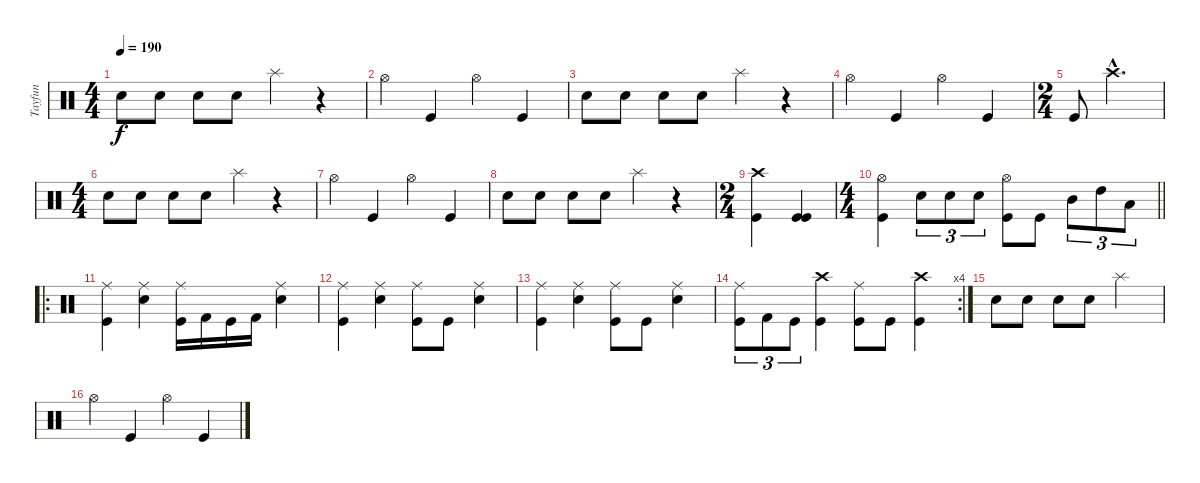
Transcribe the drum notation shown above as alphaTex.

\track ("Tayfun" "Tayfun") {instrument percussion}
\staff {score}
\articulation defaults
\ts (4 4)
\tempo 190
\clef neutral
\ks c "Snare (hit) 2".8{dy f} "Snare (hit) 2".8 "Snare (hit) 2".8 "Snare (hit) 2".8 "Splash (hit)".4
r.4 |
"Hi-Hat (open)".4 "Kick (hit)".4 "Hi-Hat (open)".4 "Kick (hit)".4 |
"Snare (hit) 2".8 "Snare (hit) 2".8 "Snare (hit) 2".8 "Snare (hit) 2".8 "Splash (hit)".4 r.4 |
"Hi-Hat (open)".4 "Kick (hit)".4 "Hi-Hat (open)".4 "Kick (hit)".4 |
\ts (2 4)
"Kick (hit)".8 "Crash high (hit)"{hac}.4{d} |
\ts (4 4)
"Snare (hit) 2".8 "Snare (hit) 2".8 "Snare (hit) 2".8 "Snare (hit) 2".8 "Splash (hit)".4 r.4 |
"Hi-Hat (open)".4 "Kick (hit)".4 "Hi-Hat (open)".4 "Kick (hit)".4 |
"Snare (hit) 2".8 "Snare (hit) 2".8 "Snare (hit) 2".8 "Snare (hit) 2".8 "Splash (hit)".4 r.4 |
\ts (2 4)
("Crash high (hit)" "Kick (hit)").4 ("Kick (hit)" "Kick (hit)").4 |
\ts (4 4)
\barLineRight lightlight
("Hi-Hat (open)" "Kick (hit)").4 "Snare (hit) 2".8{tu (3 2)} "Snare (hit) 2".8{tu (3 2)} "Snare (hit) 2".8{tu (3 2)} ("Hi-Hat (open)" "Kick (hit)").8 "Kick (hit)".8 "Mid Tom (hit)".8{tu (3 2)} "High Tom (hit)".8{tu (3 2)} "Low Tom (hit)".8{tu (3 2)} |
\ro
("Ride (middle)" "Kick (hit)").4 ("Ride (middle)" "Snare (hit) 2").4 ("Ride (middle)" "Kick (hit)").16 "Kick (hit) 2".16 "Kick (hit)".16 "Kick (hit) 2".16 ("Ride (middle)" "Snare (hit) 2").4 |
("Ride (middle)" "Kick (hit)").4 ("Ride (middle)" "Snare (hit) 2").4 ("Ride (middle)" "Kick (hit)").8 "Kick (hit)".8 ("Ride (middle)" "Snare (hit) 2").4 |
("Ride (middle)" "Kick (hit)").4 ("Ride (middle)" "Snare (hit) 2").4 ("Ride (middle)" "Kick (hit)").8 "Kick (hit)".8 ("Ride (middle)" "Snare (hit) 2").4 |
\rc 4
("Ride (middle)" "Kick (hit)").8{tu (3 2)} "Kick (hit) 2".8{tu (3 2)} "Kick (hit)".8{tu (3 2)} ("Crash high (hit)" "Kick (hit)").4 ("Ride (middle)" "Kick (hit)").8 "Kick (hit)".8 ("Crash high (hit)" "Kick (hit)").4 |
"Snare (hit) 2".8 "Snare (hit) 2".8 "Snare (hit) 2".8 "Snare (hit) 2".8 "Splash (hit)".2 |
"Hi-Hat (open)".4 "Kick (hit)".4 "Hi-Hat (open)".4 "Kick (hit)".4
